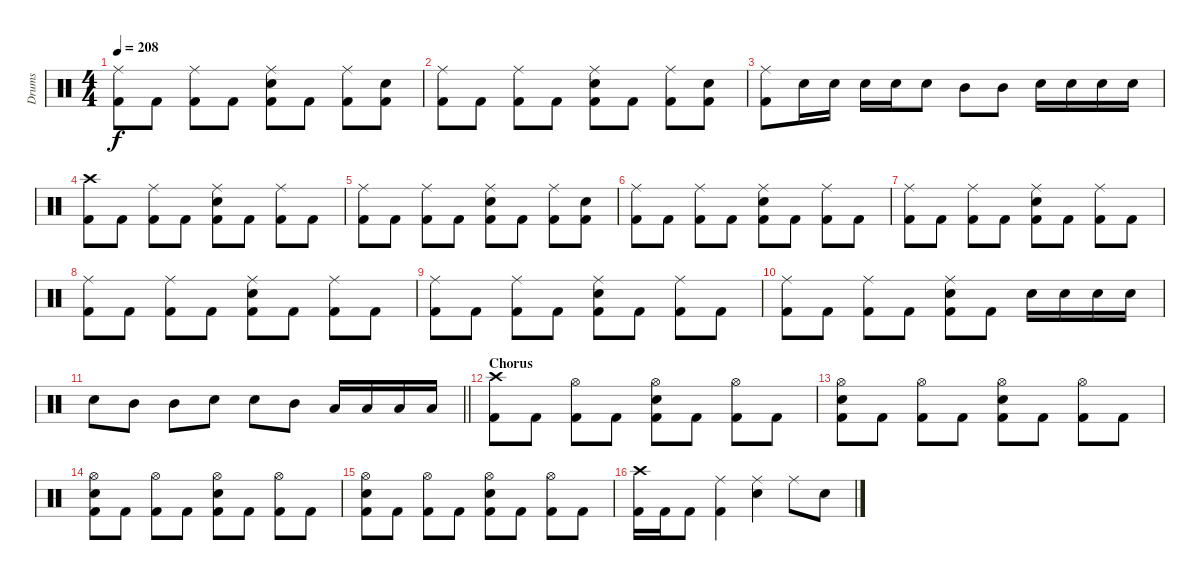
\track ("Drums" "Drums") {instrument percussion}
\staff {score}
\articulation defaults
\ts (4 4)
\tempo 208
\clef neutral
\ks c
("Ride (middle)" "Kick (hit) 2").8{dy f} "Kick (hit) 2".8 ("Ride (middle)" "Kick (hit) 2").8 "Kick (hit) 2".8 ("Ride (middle)" "Snare (hit) 2" "Kick (hit) 2").8 "Kick (hit) 2".8 ("Ride (middle)" "Kick (hit) 2").8 ("Snare (hit) 2" "Kick (hit) 2").8 |
("Ride (middle)" "Kick (hit) 2").8 "Kick (hit) 2".8 ("Ride (middle)" "Kick (hit) 2").8 "Kick (hit) 2".8 ("Ride (middle)" "Snare (hit) 2" "Kick (hit) 2").8 "Kick (hit) 2".8 ("Ride (middle)" "Kick (hit) 2").8 ("Snare (hit) 2" "Kick (hit) 2").8 |
("Ride (middle)" "Kick (hit) 2").8 "Snare (hit) 2".16 "Snare (hit) 2".16 "Snare (hit) 2".16 "Snare (hit) 2".16 "Snare (hit) 2".8 "Mid Tom (hit)".8 "Mid Tom (hit)".8 "Snare (hit) 2".16 "Snare (hit) 2".16 "Snare (hit) 2".16 "Snare (hit) 2".16 |
("Crash high (hit)" "Kick (hit) 2").8 "Kick (hit) 2".8 ("Ride (middle)" "Kick (hit) 2").8 "Kick (hit) 2".8 ("Ride (middle)" "Snare (hit) 2" "Kick (hit) 2").8 "Kick (hit) 2".8 ("Ride (middle)" "Kick (hit) 2").8 "Kick (hit) 2".8 |
("Ride (middle)" "Kick (hit) 2").8 "Kick (hit) 2".8 ("Ride (middle)" "Kick (hit) 2").8 "Kick (hit) 2".8 ("Ride (middle)" "Snare (hit) 2" "Kick (hit) 2").8 "Kick (hit) 2".8 ("Ride (middle)" "Kick (hit) 2").8 ("Snare (hit) 2" "Kick (hit) 2").8 |
("Ride (middle)" "Kick (hit) 2").8 "Kick (hit) 2".8 ("Ride (middle)" "Kick (hit) 2").8 "Kick (hit) 2".8 ("Ride (middle)" "Snare (hit) 2" "Kick (hit) 2").8 "Kick (hit) 2".8 ("Ride (middle)" "Kick (hit) 2").8 "Kick (hit) 2".8 |
("Ride (middle)" "Kick (hit) 2").8 "Kick (hit) 2".8 ("Ride (middle)" "Kick (hit) 2").8 "Kick (hit) 2".8 ("Ride (middle)" "Snare (hit) 2" "Kick (hit) 2").8 "Kick (hit) 2".8 ("Ride (middle)" "Kick (hit) 2").8 "Kick (hit) 2".8 |
("Ride (middle)" "Kick (hit) 2").8 "Kick (hit) 2".8 ("Ride (middle)" "Kick (hit) 2").8 "Kick (hit) 2".8 ("Ride (middle)" "Snare (hit) 2" "Kick (hit) 2").8 "Kick (hit) 2".8 ("Ride (middle)" "Kick (hit) 2").8 "Kick (hit) 2".8 |
("Ride (middle)" "Kick (hit) 2").8 "Kick (hit) 2".8 ("Ride (middle)" "Kick (hit) 2").8 "Kick (hit) 2".8 ("Ride (middle)" "Snare (hit) 2" "Kick (hit) 2").8 "Kick (hit) 2".8 ("Ride (middle)" "Kick (hit) 2").8 "Kick (hit) 2".8 |
("Ride (middle)" "Kick (hit) 2").8 "Kick (hit) 2".8 ("Ride (middle)" "Kick (hit) 2").8 "Kick (hit) 2".8 ("Ride (middle)" "Snare (hit) 2" "Kick (hit) 2").8 "Kick (hit) 2".8 "Snare (hit) 2".16 "Snare (hit) 2".16 "Snare (hit) 2".16 "Snare (hit) 2".16 |
\barLineRight lightlight "Snare (hit) 2".8 "Mid Tom (hit)".8 "Mid Tom (hit)".8 "Snare (hit) 2".8 "Snare (hit) 2".8 "Mid Tom (hit)".8 "Low Tom (hit)".16 "Low Tom (hit)".16 "Low Tom (hit)".16 "Low Tom (hit)".16
|
\section ("" "Chorus")
("Crash high (hit)" "Kick (hit) 2").8 "Kick (hit) 2".8 ("Hi-Hat (open)" "Kick (hit) 2").8 "Kick (hit) 2".8 ("Hi-Hat (open)" "Snare (hit) 2" "Kick (hit) 2").8 "Kick (hit) 2".8 ("Hi-Hat (open)" "Kick (hit) 2").8 "Kick (hit) 2".8 |
("Hi-Hat (open)" "Snare (hit) 2" "Kick (hit) 2").8 "Kick (hit) 2".8 ("Hi-Hat (open)" "Kick (hit) 2").8 "Kick (hit) 2".8 ("Hi-Hat (open)" "Snare (hit) 2" "Kick (hit) 2").8 "Kick (hit) 2".8 ("Hi-Hat (open)" "Kick (hit) 2").8 "Kick (hit) 2".8 |
("Hi-Hat (open)" "Snare (hit) 2" "Kick (hit) 2").8 "Kick (hit) 2".8 ("Hi-Hat (open)" "Kick (hit) 2").8 "Kick (hit) 2".8 ("Hi-Hat (open)" "Snare (hit) 2" "Kick (hit) 2").8 "Kick (hit) 2".8 ("Hi-Hat (open)" "Kick (hit) 2").8 "Kick (hit) 2".8 |
("Hi-Hat (open)" "Snare (hit) 2" "Kick (hit) 2").8 "Kick (hit) 2".8 ("Hi-Hat (open)" "Kick (hit) 2").8 "Kick (hit) 2".8 ("Hi-Hat (open)" "Snare (hit) 2" "Kick (hit) 2").8 "Kick (hit) 2".8 ("Hi-Hat (open)" "Kick (hit) 2").8 "Kick (hit) 2".8 |
("Crash high (hit)" "Kick (hit) 2").16 "Kick (hit) 2".16 "Kick (hit) 2".8 ("Ride (middle)" "Kick (hit) 2").4 ("Ride (middle)" "Snare (hit) 2").4 "Ride (middle)".8 "Snare (hit) 2".8
